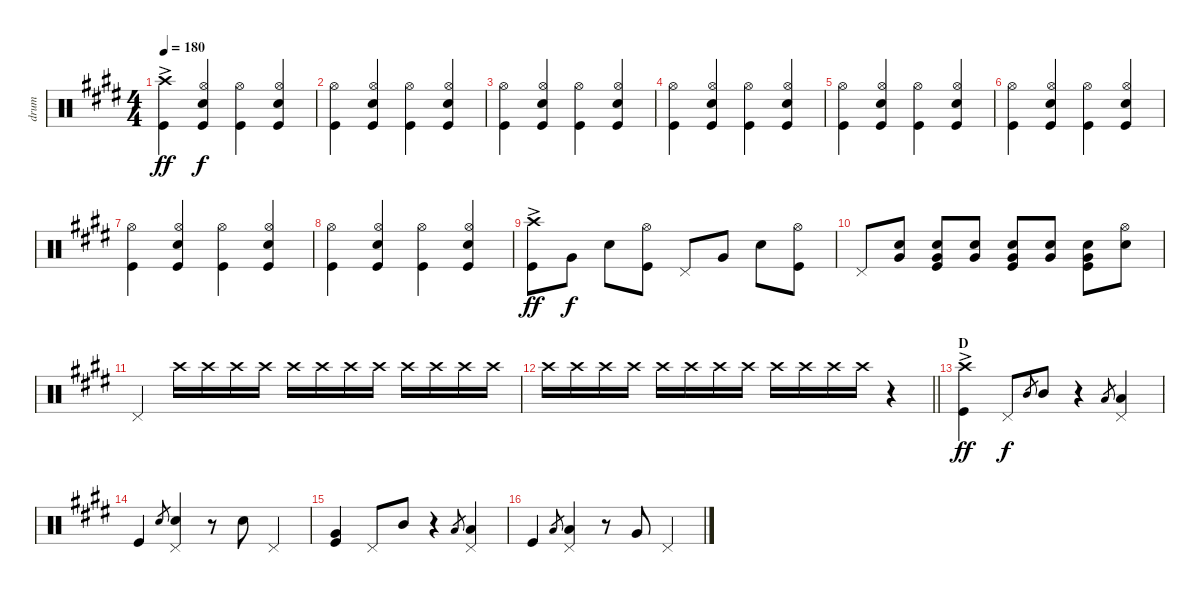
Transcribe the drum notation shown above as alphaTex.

\track ("drum" "drum") {instrument percussion}
\staff {score}
\articulation defaults
\ts (4 4)
\tempo 180
\clef neutral
\ks e
("Crash high (hit)"{ac} "Kick (hit)").4{dy ff} ("Hi-Hat (open)" "Snare (hit) 2" "Kick (hit)").4{dy f} ("Hi-Hat (open)" "Kick (hit)").4 ("Hi-Hat (open)" "Snare (hit) 2" "Kick (hit)").4 |
("Hi-Hat (open)" "Kick (hit)").4 ("Hi-Hat (open)" "Snare (hit) 2" "Kick (hit)").4 ("Hi-Hat (open)" "Kick (hit)").4 ("Hi-Hat (open)" "Snare (hit) 2" "Kick (hit)").4 |
("Hi-Hat (open)" "Kick (hit)").4 ("Hi-Hat (open)" "Snare (hit) 2" "Kick (hit)").4 ("Hi-Hat (open)" "Kick (hit)").4 ("Hi-Hat (open)" "Snare (hit) 2" "Kick (hit)").4 |
("Hi-Hat (open)" "Kick (hit)").4 ("Hi-Hat (open)" "Snare (hit) 2" "Kick (hit)").4 ("Hi-Hat (open)" "Kick (hit)").4 ("Hi-Hat (open)" "Snare (hit) 2" "Kick (hit)").4 |
("Hi-Hat (open)" "Kick (hit)").4 ("Hi-Hat (open)" "Snare (hit) 2" "Kick (hit)").4 ("Hi-Hat (open)" "Kick (hit)").4 ("Hi-Hat (open)" "Snare (hit) 2" "Kick (hit)").4 |
("Hi-Hat (open)" "Kick (hit)").4 ("Hi-Hat (open)" "Snare (hit) 2" "Kick (hit)").4 ("Hi-Hat (open)" "Kick (hit)").4 ("Hi-Hat (open)" "Snare (hit) 2" "Kick (hit)").4 |
("Hi-Hat (open)" "Kick (hit)").4 ("Hi-Hat (open)" "Snare (hit) 2" "Kick (hit)").4 ("Hi-Hat (open)" "Kick (hit)").4 ("Hi-Hat (open)" "Snare (hit) 2" "Kick (hit)").4 |
("Hi-Hat (open)" "Kick (hit)").4 ("Hi-Hat (open)" "Snare (hit) 2" "Kick (hit)").4 ("Hi-Hat (open)" "Kick (hit)").4 ("Hi-Hat (open)" "Snare (hit) 2" "Kick (hit)").4 |
("Crash high (hit)"{ac} "Kick (hit)").8{dy ff} "Very Low Tom (hit)".8{dy f} "Snare (hit) 2".8 ("Hi-Hat (open)" "Kick (hit)").8 "Pedal Hi-Hat (hit)".8 "Very Low Tom (hit)".8 "Snare (hit) 2".8 ("Hi-Hat (open)" "Kick (hit)").8 |
"Pedal Hi-Hat (hit)".8 ("Snare (hit) 2" "Very Low Tom (hit)").8 ("Snare (hit) 2" "Very Low Tom (hit)" "Kick (hit)").8 ("Snare (hit) 2" "Very Low Tom (hit)").8 ("Snare (hit) 2" "Very Low Tom (hit)" "Kick (hit)").8 ("Snare (hit) 2" "Very Low Tom (hit)").8 ("Snare (hit) 2" "Very Low Tom (hit)" "Kick (hit)").8 ("Hi-Hat (open)" "Snare (hit) 2").8 |
"Pedal Hi-Hat (hit)".4 "Crash high (hit)".16{volume 6} "Crash high (hit)".16{volume 15} "Crash high (hit)".16 "Crash high (hit)".16 "Crash high (hit)".16 "Crash high (hit)".16 "Crash high (hit)".16 "Crash high (hit)".16 "Crash high (hit)".16 "Crash high (hit)".16 "Crash high (hit)".16 "Crash high (hit)".16 |
\barLineRight lightlight "Crash high (hit)".16 "Crash high (hit)".16 "Crash high (hit)".16 "Crash high (hit)".16 "Crash high (hit)".16 "Crash high (hit)".16 "Crash high (hit)".16 "Crash high (hit)".16 "Crash high (hit)".16 "Crash high (hit)".16 "Crash high (hit)".16 "Crash high (hit)".16
r.4 |
\section ("" "D")
("Crash high (hit)"{ac} "Kick (hit)").4{dy ff} "Pedal Hi-Hat (hit)".8{dy f} "Mid Tom (hit)".8{gr} "Mid Tom (hit)".8 r.4 "Low Tom (hit)".8{gr} ("Low Tom (hit)" "Pedal Hi-Hat (hit)").4 |
"Kick (hit)".4 "Snare (hit) 2".8{gr} ("Snare (hit) 2" "Pedal Hi-Hat (hit)").4 r.8 "Snare (hit) 2".8 "Pedal Hi-Hat (hit)".4 |
("Very Low Tom (hit)" "Kick (hit)").4 "Pedal Hi-Hat (hit)".8 "Mid Tom (hit)".8 r.4 "Low Tom (hit)".8{gr} ("Low Tom (hit)" "Pedal Hi-Hat (hit)").4 |
"Kick (hit)".4 "Low Tom (hit)".8{gr} ("Low Tom (hit)" "Pedal Hi-Hat (hit)").4 r.8 "Very Low Tom (hit)".8 "Pedal Hi-Hat (hit)".4
